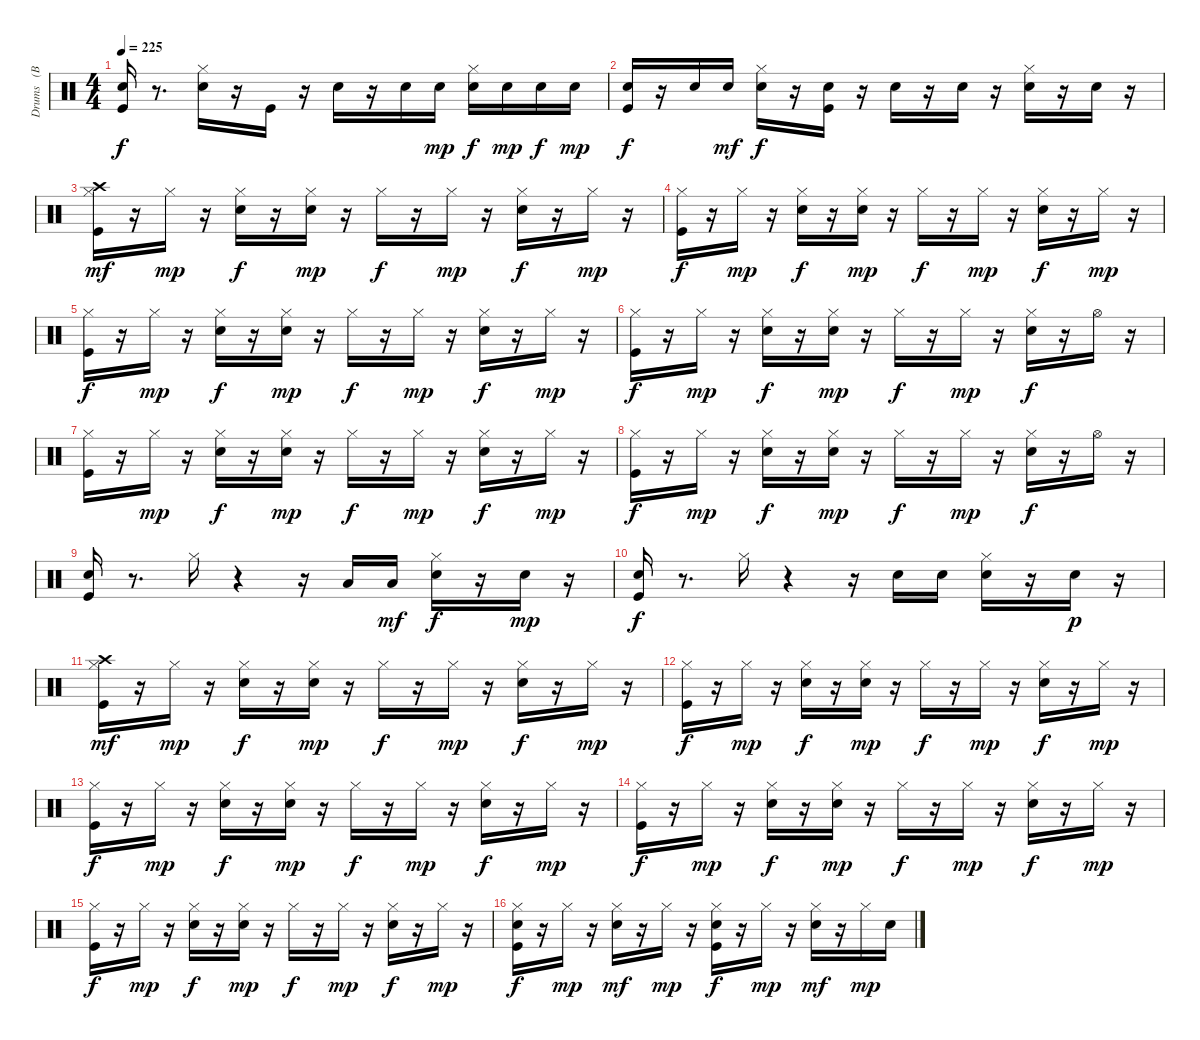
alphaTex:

\track ("Drums   (BB)" "Drums   (B") {instrument percussion}
\staff {score}
\articulation defaults
\ts (4 4)
\tempo 225
\clef neutral
\ks c
("Kick (hit)" "Snare (hit) 2").16{dy f} r.8{d} ("Snare (hit) 2" "Hi-Hat (closed)").16 r.16 "Kick (hit)".16 r.16 "Snare (hit) 2".16 r.16 "Snare (hit) 2".16 "Snare (hit) 2".16{dy mp} ("Snare (hit) 2" "Hi-Hat (closed)").16{dy f} "Snare (hit) 2".16{dy mp} "Snare (hit) 2".16{dy f} "Snare (hit) 2".16{dy mp} |
("Kick (hit)" "Snare (hit) 2").16{dy f} r.16 "Snare (hit) 2".16 "Snare (hit) 2".16{dy mf} ("Snare (hit) 2" "Hi-Hat (closed)").16{dy f} r.16 ("Kick (hit)" "Snare (hit) 2").16 r.16 "Snare (hit) 2".16 r.16 "Snare (hit) 2".16 r.16 ("Snare (hit) 2" "Hi-Hat (closed)").16 r.16 "Snare (hit) 2".16 r.16 |
("Kick (hit)" "Hi-Hat (closed)" "Crash high (hit)").16{dy mf} r.16 "Hi-Hat (closed)".16{dy mp} r.16 ("Snare (hit) 2" "Hi-Hat (closed)").16{dy f} r.16 ("Snare (hit) 2" "Hi-Hat (closed)").16{dy mp} r.16 "Hi-Hat (closed)".16{dy f} r.16 "Hi-Hat (closed)".16{dy mp} r.16 ("Snare (hit) 2" "Hi-Hat (closed)").16{dy f} r.16 "Hi-Hat (closed)".16{dy mp} r.16 |
("Kick (hit)" "Hi-Hat (closed)").16{dy f} r.16 "Hi-Hat (closed)".16{dy mp} r.16 ("Snare (hit) 2" "Hi-Hat (closed)").16{dy f} r.16 ("Snare (hit) 2" "Hi-Hat (closed)").16{dy mp} r.16 "Hi-Hat (closed)".16{dy f} r.16 "Hi-Hat (closed)".16{dy mp} r.16 ("Snare (hit) 2" "Hi-Hat (closed)").16{dy f} r.16 "Hi-Hat (closed)".16{dy mp} r.16 |
("Kick (hit)" "Hi-Hat (closed)").16{dy f} r.16 "Hi-Hat (closed)".16{dy mp} r.16 ("Snare (hit) 2" "Hi-Hat (closed)").16{dy f} r.16 ("Snare (hit) 2" "Hi-Hat (closed)").16{dy mp} r.16 "Hi-Hat (closed)".16{dy f} r.16 "Hi-Hat (closed)".16{dy mp} r.16 ("Snare (hit) 2" "Hi-Hat (closed)").16{dy f} r.16 "Hi-Hat (closed)".16{dy mp} r.16 |
("Kick (hit)" "Hi-Hat (closed)").16{dy f} r.16 "Hi-Hat (closed)".16{dy mp} r.16 ("Snare (hit) 2" "Hi-Hat (closed)").16{dy f} r.16 ("Snare (hit) 2" "Hi-Hat (closed)").16{dy mp} r.16 "Hi-Hat (closed)".16{dy f} r.16 "Hi-Hat (closed)".16{dy mp} r.16 ("Snare (hit) 2" "Hi-Hat (closed)").16{dy f} r.16 "Hi-Hat (open)".16 r.16 |
("Kick (hit)" "Hi-Hat (closed)").16 r.16 "Hi-Hat (closed)".16{dy mp} r.16 ("Snare (hit) 2" "Hi-Hat (closed)").16{dy f} r.16 ("Snare (hit) 2" "Hi-Hat (closed)").16{dy mp} r.16 "Hi-Hat (closed)".16{dy f} r.16 "Hi-Hat (closed)".16{dy mp} r.16 ("Snare (hit) 2" "Hi-Hat (closed)").16{dy f} r.16 "Hi-Hat (closed)".16{dy mp} r.16 |
("Kick (hit)" "Hi-Hat (closed)").16{dy f} r.16 "Hi-Hat (closed)".16{dy mp} r.16 ("Snare (hit) 2" "Hi-Hat (closed)").16{dy f} r.16 ("Snare (hit) 2" "Hi-Hat (closed)").16{dy mp} r.16 "Hi-Hat (closed)".16{dy f} r.16 "Hi-Hat (closed)".16{dy mp} r.16 ("Snare (hit) 2" "Hi-Hat (closed)").16{dy f} r.16 "Hi-Hat (open)".16 r.16 |
("Kick (hit)" "Snare (hit) 2").16 r.8{d} "Hi-Hat (closed)".16 r.4 r.16 "Low Tom (hit)".16 "Low Tom (hit)".16{dy mf} ("Snare (hit) 2" "Hi-Hat (closed)").16{dy f} r.16 "Snare (hit) 2".16{dy mp} r.16 |
("Kick (hit)" "Snare (hit) 2").16{dy f} r.8{d} "Hi-Hat (closed)".16 r.4 r.16 "Snare (hit) 2".16 "Snare (hit) 2".16 ("Snare (hit) 2" "Hi-Hat (closed)").16 r.16 "Snare (hit) 2".16{dy p} r.16 |
("Kick (hit)" "Hi-Hat (closed)" "Crash high (hit)").16{dy mf} r.16 "Hi-Hat (closed)".16{dy mp} r.16 ("Snare (hit) 2" "Hi-Hat (closed)").16{dy f} r.16 ("Snare (hit) 2" "Hi-Hat (closed)").16{dy mp} r.16 "Hi-Hat (closed)".16{dy f} r.16 "Hi-Hat (closed)".16{dy mp} r.16 ("Snare (hit) 2" "Hi-Hat (closed)").16{dy f} r.16 "Hi-Hat (closed)".16{dy mp} r.16 |
("Kick (hit)" "Hi-Hat (closed)").16{dy f} r.16 "Hi-Hat (closed)".16{dy mp} r.16 ("Snare (hit) 2" "Hi-Hat (closed)").16{dy f} r.16 ("Snare (hit) 2" "Hi-Hat (closed)").16{dy mp} r.16 "Hi-Hat (closed)".16{dy f} r.16 "Hi-Hat (closed)".16{dy mp} r.16 ("Snare (hit) 2" "Hi-Hat (closed)").16{dy f} r.16 "Hi-Hat (closed)".16{dy mp} r.16 |
("Kick (hit)" "Hi-Hat (closed)").16{dy f} r.16 "Hi-Hat (closed)".16{dy mp} r.16 ("Snare (hit) 2" "Hi-Hat (closed)").16{dy f} r.16 ("Snare (hit) 2" "Hi-Hat (closed)").16{dy mp} r.16 "Hi-Hat (closed)".16{dy f} r.16 "Hi-Hat (closed)".16{dy mp} r.16 ("Snare (hit) 2" "Hi-Hat (closed)").16{dy f} r.16 "Hi-Hat (closed)".16{dy mp} r.16 |
("Kick (hit)" "Hi-Hat (closed)").16{dy f} r.16 "Hi-Hat (closed)".16{dy mp} r.16 ("Snare (hit) 2" "Hi-Hat (closed)").16{dy f} r.16 ("Snare (hit) 2" "Hi-Hat (closed)").16{dy mp} r.16 "Hi-Hat (closed)".16{dy f} r.16 "Hi-Hat (closed)".16{dy mp} r.16 ("Snare (hit) 2" "Hi-Hat (closed)").16{dy f} r.16 "Hi-Hat (closed)".16{dy mp} r.16 |
("Kick (hit)" "Hi-Hat (closed)").16{dy f} r.16 "Hi-Hat (closed)".16{dy mp} r.16 ("Snare (hit) 2" "Hi-Hat (closed)").16{dy f} r.16 ("Snare (hit) 2" "Hi-Hat (closed)").16{dy mp} r.16 "Hi-Hat (closed)".16{dy f} r.16 "Hi-Hat (closed)".16{dy mp} r.16 ("Snare (hit) 2" "Hi-Hat (closed)").16{dy f} r.16 "Hi-Hat (closed)".16{dy mp} r.16 |
("Kick (hit)" "Snare (hit) 2" "Hi-Hat (closed)").16{dy f} r.16 "Hi-Hat (closed)".16{dy mp} r.16 ("Snare (hit) 2" "Hi-Hat (closed)").16{dy mf} r.16 "Hi-Hat (closed)".16{dy mp} r.16 ("Kick (hit)" "Snare (hit) 2" "Hi-Hat (closed)").16{dy f} r.16 "Hi-Hat (closed)".16{dy mp} r.16 ("Snare (hit) 2" "Hi-Hat (closed)").16{dy mf} r.16 "Hi-Hat (closed)".16{dy mp} "Snare (hit) 2".16
